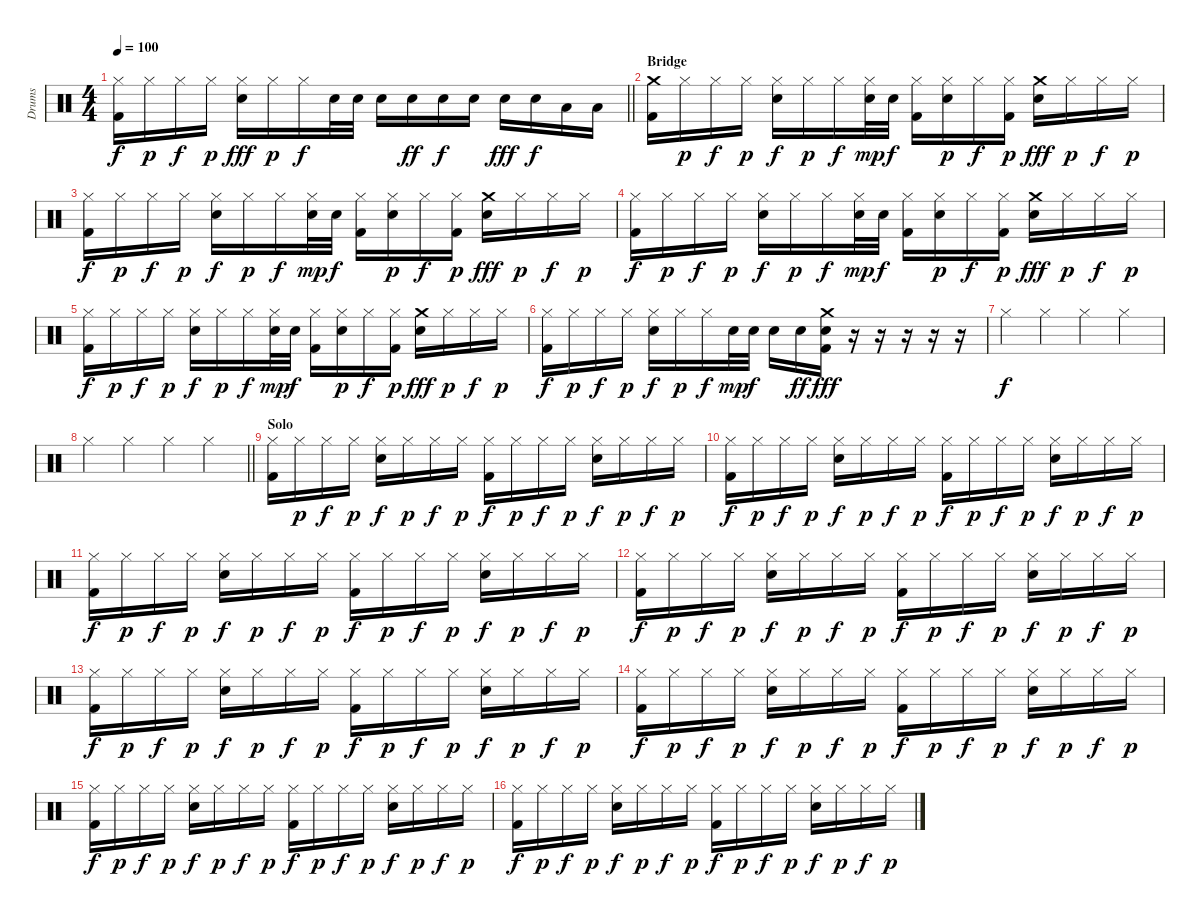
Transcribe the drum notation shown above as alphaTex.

\track ("Drums" "Drums") {instrument percussion}
\staff {score}
\articulation defaults
\ts (4 4)
\tempo 100
\clef neutral
\barLineRight lightlight
\ks c
("Hi-Hat (closed)" "Kick (hit) 2").16{dy f} "Hi-Hat (closed)".16{dy p} "Hi-Hat (closed)".16{dy f} "Hi-Hat (closed)".16{dy p} ("Hi-Hat (closed)" "Electric Snare (hit)").16{dy fff} "Hi-Hat (closed)".16{dy p} "Hi-Hat (closed)".16{dy f} "Snare (hit) 2".32 "Snare (hit) 2".32 "Electric Snare (hit)".16 "Electric Snare (hit)".16{dy ff} "Electric Snare (hit)".16{dy f} "Electric Snare (hit)".16 "Electric Snare (hit)".16{dy fff} "Electric Snare (hit)".16{dy f} "Low Tom (hit)".16 "Low Tom (hit)".16 |
\section ("" "Bridge")
("Crash medium (hit)" "Kick (hit) 2").16 "Hi-Hat (closed)".16{dy p} "Hi-Hat (closed)".16{dy f} "Hi-Hat (closed)".16{dy p} ("Hi-Hat (closed)" "Electric Snare (hit)").16{dy f} "Hi-Hat (closed)".16{dy p} "Hi-Hat (closed)".16{dy f} ("Hi-Hat (closed)" "Electric Snare (hit)").32{dy mp} "Electric Snare (hit)".32{dy f} ("Hi-Hat (closed)" "Kick (hit) 2").16 ("Hi-Hat (closed)" "Electric Snare (hit)").16{dy p} "Hi-Hat (closed)".16{dy f} ("Hi-Hat (closed)" "Kick (hit) 2").16{dy p} ("Crash medium (hit)" "Electric Snare (hit)").16{dy fff} "Hi-Hat (closed)".16{dy p} "Hi-Hat (closed)".16{dy f} "Hi-Hat (closed)".16{dy p} |
("Hi-Hat (closed)" "Kick (hit) 2").16{dy f} "Hi-Hat (closed)".16{dy p} "Hi-Hat (closed)".16{dy f} "Hi-Hat (closed)".16{dy p} ("Hi-Hat (closed)" "Electric Snare (hit)").16{dy f} "Hi-Hat (closed)".16{dy p} "Hi-Hat (closed)".16{dy f} ("Hi-Hat (closed)" "Electric Snare (hit)").32{dy mp} "Electric Snare (hit)".32{dy f} ("Hi-Hat (closed)" "Kick (hit) 2").16 ("Hi-Hat (closed)" "Electric Snare (hit)").16{dy p} "Hi-Hat (closed)".16{dy f} ("Hi-Hat (closed)" "Kick (hit) 2").16{dy p} ("Crash medium (hit)" "Electric Snare (hit)").16{dy fff} "Hi-Hat (closed)".16{dy p} "Hi-Hat (closed)".16{dy f} "Hi-Hat (closed)".16{dy p} |
("Hi-Hat (closed)" "Kick (hit) 2").16{dy f} "Hi-Hat (closed)".16{dy p} "Hi-Hat (closed)".16{dy f} "Hi-Hat (closed)".16{dy p} ("Hi-Hat (closed)" "Electric Snare (hit)").16{dy f} "Hi-Hat (closed)".16{dy p} "Hi-Hat (closed)".16{dy f} ("Hi-Hat (closed)" "Electric Snare (hit)").32{dy mp} "Electric Snare (hit)".32{dy f} ("Hi-Hat (closed)" "Kick (hit) 2").16 ("Hi-Hat (closed)" "Electric Snare (hit)").16{dy p} "Hi-Hat (closed)".16{dy f} ("Hi-Hat (closed)" "Kick (hit) 2").16{dy p} ("Crash medium (hit)" "Electric Snare (hit)").16{dy fff} "Hi-Hat (closed)".16{dy p} "Hi-Hat (closed)".16{dy f} "Hi-Hat (closed)".16{dy p} |
("Hi-Hat (closed)" "Kick (hit) 2").16{dy f} "Hi-Hat (closed)".16{dy p} "Hi-Hat (closed)".16{dy f} "Hi-Hat (closed)".16{dy p} ("Hi-Hat (closed)" "Electric Snare (hit)").16{dy f} "Hi-Hat (closed)".16{dy p} "Hi-Hat (closed)".16{dy f} ("Hi-Hat (closed)" "Electric Snare (hit)").32{dy mp} "Electric Snare (hit)".32{dy f} ("Hi-Hat (closed)" "Kick (hit) 2").16 ("Hi-Hat (closed)" "Electric Snare (hit)").16{dy p} "Hi-Hat (closed)".16{dy f} ("Hi-Hat (closed)" "Kick (hit) 2").16{dy p} ("Crash medium (hit)" "Electric Snare (hit)").16{dy fff} "Hi-Hat (closed)".16{dy p} "Hi-Hat (closed)".16{dy f} "Hi-Hat (closed)".16{dy p} |
("Hi-Hat (closed)" "Kick (hit) 2").16{dy f} "Hi-Hat (closed)".16{dy p} "Hi-Hat (closed)".16{dy f} "Hi-Hat (closed)".16{dy p} ("Hi-Hat (closed)" "Electric Snare (hit)").16{dy f} "Hi-Hat (closed)".16{dy p} "Hi-Hat (closed)".16{dy f} "Electric Snare (hit)".32{dy mp} "Electric Snare (hit)".32{dy f} "Electric Snare (hit)".16 "Electric Snare (hit)".16{dy ff} ("Crash medium (hit)" "Electric Snare (hit)" "Kick (hit) 2").16{dy fff} r.16 r.16 r.16 r.16 r.16 |
"Hi-Hat (closed)".4{dy f} "Hi-Hat (closed)".4 "Hi-Hat (closed)".4 "Hi-Hat (closed)".4 |
\barLineRight lightlight "Hi-Hat (closed)".4 "Hi-Hat (closed)".4 "Hi-Hat (closed)".4 "Hi-Hat (closed)".4
|
\section ("" "Solo")
("Hi-Hat (closed)" "Kick (hit) 2").16 "Hi-Hat (closed)".16{dy p} "Hi-Hat (closed)".16{dy f} "Hi-Hat (closed)".16{dy p} ("Hi-Hat (closed)" "Electric Snare (hit)").16{dy f} "Hi-Hat (closed)".16{dy p} "Hi-Hat (closed)".16{dy f} "Hi-Hat (closed)".16{dy p} ("Hi-Hat (closed)" "Kick (hit) 2").16{dy f} "Hi-Hat (closed)".16{dy p} "Hi-Hat (closed)".16{dy f} "Hi-Hat (closed)".16{dy p} ("Hi-Hat (closed)" "Electric Snare (hit)").16{dy f} "Hi-Hat (closed)".16{dy p} "Hi-Hat (closed)".16{dy f} "Hi-Hat (closed)".16{dy p} |
("Hi-Hat (closed)" "Kick (hit) 2").16{dy f} "Hi-Hat (closed)".16{dy p} "Hi-Hat (closed)".16{dy f} "Hi-Hat (closed)".16{dy p} ("Hi-Hat (closed)" "Electric Snare (hit)").16{dy f} "Hi-Hat (closed)".16{dy p} "Hi-Hat (closed)".16{dy f} "Hi-Hat (closed)".16{dy p} ("Hi-Hat (closed)" "Kick (hit) 2").16{dy f} "Hi-Hat (closed)".16{dy p} "Hi-Hat (closed)".16{dy f} "Hi-Hat (closed)".16{dy p} ("Hi-Hat (closed)" "Electric Snare (hit)").16{dy f} "Hi-Hat (closed)".16{dy p} "Hi-Hat (closed)".16{dy f} "Hi-Hat (closed)".16{dy p} |
("Hi-Hat (closed)" "Kick (hit) 2").16{dy f} "Hi-Hat (closed)".16{dy p} "Hi-Hat (closed)".16{dy f} "Hi-Hat (closed)".16{dy p} ("Hi-Hat (closed)" "Electric Snare (hit)").16{dy f} "Hi-Hat (closed)".16{dy p} "Hi-Hat (closed)".16{dy f} "Hi-Hat (closed)".16{dy p} ("Hi-Hat (closed)" "Kick (hit) 2").16{dy f} "Hi-Hat (closed)".16{dy p} "Hi-Hat (closed)".16{dy f} "Hi-Hat (closed)".16{dy p} ("Hi-Hat (closed)" "Electric Snare (hit)").16{dy f} "Hi-Hat (closed)".16{dy p} "Hi-Hat (closed)".16{dy f} "Hi-Hat (closed)".16{dy p} |
("Hi-Hat (closed)" "Kick (hit) 2").16{dy f} "Hi-Hat (closed)".16{dy p} "Hi-Hat (closed)".16{dy f} "Hi-Hat (closed)".16{dy p} ("Hi-Hat (closed)" "Electric Snare (hit)").16{dy f} "Hi-Hat (closed)".16{dy p} "Hi-Hat (closed)".16{dy f} "Hi-Hat (closed)".16{dy p} ("Hi-Hat (closed)" "Kick (hit) 2").16{dy f} "Hi-Hat (closed)".16{dy p} "Hi-Hat (closed)".16{dy f} "Hi-Hat (closed)".16{dy p} ("Hi-Hat (closed)" "Electric Snare (hit)").16{dy f} "Hi-Hat (closed)".16{dy p} "Hi-Hat (closed)".16{dy f} "Hi-Hat (closed)".16{dy p} |
("Hi-Hat (closed)" "Kick (hit) 2").16{dy f} "Hi-Hat (closed)".16{dy p} "Hi-Hat (closed)".16{dy f} "Hi-Hat (closed)".16{dy p} ("Hi-Hat (closed)" "Electric Snare (hit)").16{dy f} "Hi-Hat (closed)".16{dy p} "Hi-Hat (closed)".16{dy f} "Hi-Hat (closed)".16{dy p} ("Hi-Hat (closed)" "Kick (hit) 2").16{dy f} "Hi-Hat (closed)".16{dy p} "Hi-Hat (closed)".16{dy f} "Hi-Hat (closed)".16{dy p} ("Hi-Hat (closed)" "Electric Snare (hit)").16{dy f} "Hi-Hat (closed)".16{dy p} "Hi-Hat (closed)".16{dy f} "Hi-Hat (closed)".16{dy p} |
("Hi-Hat (closed)" "Kick (hit) 2").16{dy f} "Hi-Hat (closed)".16{dy p} "Hi-Hat (closed)".16{dy f} "Hi-Hat (closed)".16{dy p} ("Hi-Hat (closed)" "Electric Snare (hit)").16{dy f} "Hi-Hat (closed)".16{dy p} "Hi-Hat (closed)".16{dy f} "Hi-Hat (closed)".16{dy p} ("Hi-Hat (closed)" "Kick (hit) 2").16{dy f} "Hi-Hat (closed)".16{dy p} "Hi-Hat (closed)".16{dy f} "Hi-Hat (closed)".16{dy p} ("Hi-Hat (closed)" "Electric Snare (hit)").16{dy f} "Hi-Hat (closed)".16{dy p} "Hi-Hat (closed)".16{dy f} "Hi-Hat (closed)".16{dy p} |
("Hi-Hat (closed)" "Kick (hit) 2").16{dy f} "Hi-Hat (closed)".16{dy p} "Hi-Hat (closed)".16{dy f} "Hi-Hat (closed)".16{dy p} ("Hi-Hat (closed)" "Electric Snare (hit)").16{dy f} "Hi-Hat (closed)".16{dy p} "Hi-Hat (closed)".16{dy f} "Hi-Hat (closed)".16{dy p} ("Hi-Hat (closed)" "Kick (hit) 2").16{dy f} "Hi-Hat (closed)".16{dy p} "Hi-Hat (closed)".16{dy f} "Hi-Hat (closed)".16{dy p} ("Hi-Hat (closed)" "Electric Snare (hit)").16{dy f} "Hi-Hat (closed)".16{dy p} "Hi-Hat (closed)".16{dy f} "Hi-Hat (closed)".16{dy p} |
("Hi-Hat (closed)" "Kick (hit) 2").16{dy f} "Hi-Hat (closed)".16{dy p} "Hi-Hat (closed)".16{dy f} "Hi-Hat (closed)".16{dy p} ("Hi-Hat (closed)" "Electric Snare (hit)").16{dy f} "Hi-Hat (closed)".16{dy p} "Hi-Hat (closed)".16{dy f} "Hi-Hat (closed)".16{dy p} ("Hi-Hat (closed)" "Kick (hit) 2").16{dy f} "Hi-Hat (closed)".16{dy p} "Hi-Hat (closed)".16{dy f} "Hi-Hat (closed)".16{dy p} ("Hi-Hat (closed)" "Electric Snare (hit)").16{dy f} "Hi-Hat (closed)".16{dy p} "Hi-Hat (closed)".16{dy f} "Hi-Hat (closed)".16{dy p}
